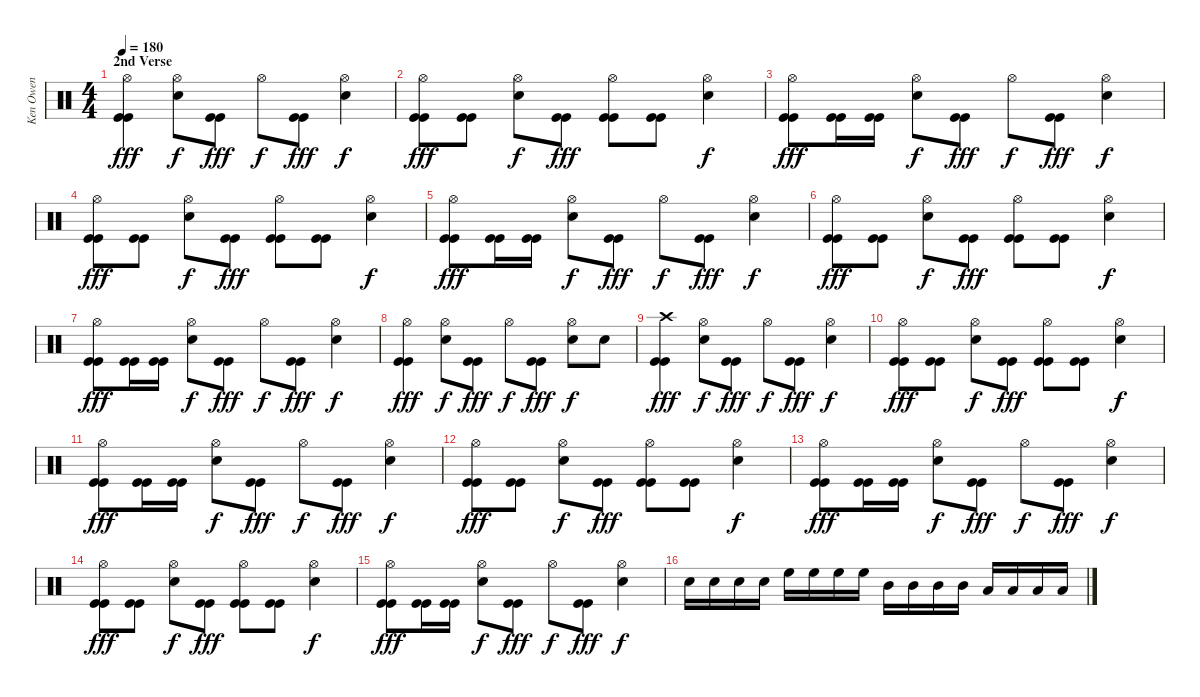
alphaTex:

\track ("Ken Owen" "Ken Owen") {instrument percussion}
\staff {score}
\articulation defaults
\ts (4 4)
\section ("" "2nd Verse")
\tempo 180
\clef neutral
\ks c
("Hi-Hat (open)" "Kick (hit)" "Kick (hit)").4{dy fff} ("Hi-Hat (open)" "Snare (hit) 2").8{dy f} ("Kick (hit)" "Kick (hit)").8{dy fff} "Hi-Hat (open)".8{dy f} ("Kick (hit)" "Kick (hit)").8{dy fff} ("Hi-Hat (open)" "Snare (hit) 2").4{dy f} |
("Hi-Hat (open)" "Kick (hit)" "Kick (hit)").8{dy fff} ("Kick (hit)" "Kick (hit)").8 ("Hi-Hat (open)" "Snare (hit) 2").8{dy f} ("Kick (hit)" "Kick (hit)").8{dy fff} ("Hi-Hat (open)" "Kick (hit)" "Kick (hit)").8 ("Kick (hit)" "Kick (hit)").8 ("Hi-Hat (open)" "Snare (hit) 2").4{dy f} |
("Hi-Hat (open)" "Kick (hit)" "Kick (hit)").8{dy fff} ("Kick (hit)" "Kick (hit)").16 ("Kick (hit)" "Kick (hit)").16 ("Hi-Hat (open)" "Snare (hit) 2").8{dy f} ("Kick (hit)" "Kick (hit)").8{dy fff} "Hi-Hat (open)".8{dy f} ("Kick (hit)" "Kick (hit)").8{dy fff} ("Hi-Hat (open)" "Snare (hit) 2").4{dy f} |
("Hi-Hat (open)" "Kick (hit)" "Kick (hit)").8{dy fff} ("Kick (hit)" "Kick (hit)").8 ("Hi-Hat (open)" "Snare (hit) 2").8{dy f} ("Kick (hit)" "Kick (hit)").8{dy fff} ("Hi-Hat (open)" "Kick (hit)" "Kick (hit)").8 ("Kick (hit)" "Kick (hit)").8 ("Hi-Hat (open)" "Snare (hit) 2").4{dy f} |
("Hi-Hat (open)" "Kick (hit)" "Kick (hit)").8{dy fff} ("Kick (hit)" "Kick (hit)").16 ("Kick (hit)" "Kick (hit)").16 ("Hi-Hat (open)" "Snare (hit) 2").8{dy f} ("Kick (hit)" "Kick (hit)").8{dy fff} "Hi-Hat (open)".8{dy f} ("Kick (hit)" "Kick (hit)").8{dy fff} ("Hi-Hat (open)" "Snare (hit) 2").4{dy f} |
("Hi-Hat (open)" "Kick (hit)" "Kick (hit)").8{dy fff} ("Kick (hit)" "Kick (hit)").8 ("Hi-Hat (open)" "Snare (hit) 2").8{dy f} ("Kick (hit)" "Kick (hit)").8{dy fff} ("Hi-Hat (open)" "Kick (hit)" "Kick (hit)").8 ("Kick (hit)" "Kick (hit)").8 ("Hi-Hat (open)" "Snare (hit) 2").4{dy f} |
("Hi-Hat (open)" "Kick (hit)" "Kick (hit)").8{dy fff} ("Kick (hit)" "Kick (hit)").16 ("Kick (hit)" "Kick (hit)").16 ("Hi-Hat (open)" "Snare (hit) 2").8{dy f} ("Kick (hit)" "Kick (hit)").8{dy fff} "Hi-Hat (open)".8{dy f} ("Kick (hit)" "Kick (hit)").8{dy fff} ("Hi-Hat (open)" "Snare (hit) 2").4{dy f} |
("Hi-Hat (open)" "Kick (hit)" "Kick (hit)").4{dy fff} ("Hi-Hat (open)" "Snare (hit) 2").8{dy f} ("Kick (hit)" "Kick (hit)").8{dy fff} "Hi-Hat (open)".8{dy f} ("Kick (hit)" "Kick (hit)").8{dy fff} ("Hi-Hat (open)" "Snare (hit) 2").8{dy f} "Snare (hit) 2".8 |
("Crash high (hit)" "Kick (hit)" "Kick (hit)").4{dy fff} ("Hi-Hat (open)" "Snare (hit) 2").8{dy f} ("Kick (hit)" "Kick (hit)").8{dy fff} "Hi-Hat (open)".8{dy f} ("Kick (hit)" "Kick (hit)").8{dy fff} ("Hi-Hat (open)" "Snare (hit) 2").4{dy f} |
("Hi-Hat (open)" "Kick (hit)" "Kick (hit)").8{dy fff} ("Kick (hit)" "Kick (hit)").8 ("Hi-Hat (open)" "Snare (hit) 2").8{dy f} ("Kick (hit)" "Kick (hit)").8{dy fff} ("Hi-Hat (open)" "Kick (hit)" "Kick (hit)").8 ("Kick (hit)" "Kick (hit)").8 ("Hi-Hat (open)" "Snare (hit) 2").4{dy f} |
("Hi-Hat (open)" "Kick (hit)" "Kick (hit)").8{dy fff} ("Kick (hit)" "Kick (hit)").16 ("Kick (hit)" "Kick (hit)").16 ("Hi-Hat (open)" "Snare (hit) 2").8{dy f} ("Kick (hit)" "Kick (hit)").8{dy fff} "Hi-Hat (open)".8{dy f} ("Kick (hit)" "Kick (hit)").8{dy fff} ("Hi-Hat (open)" "Snare (hit) 2").4{dy f} |
("Hi-Hat (open)" "Kick (hit)" "Kick (hit)").8{dy fff} ("Kick (hit)" "Kick (hit)").8 ("Hi-Hat (open)" "Snare (hit) 2").8{dy f} ("Kick (hit)" "Kick (hit)").8{dy fff} ("Hi-Hat (open)" "Kick (hit)" "Kick (hit)").8 ("Kick (hit)" "Kick (hit)").8 ("Hi-Hat (open)" "Snare (hit) 2").4{dy f} |
("Hi-Hat (open)" "Kick (hit)" "Kick (hit)").8{dy fff} ("Kick (hit)" "Kick (hit)").16 ("Kick (hit)" "Kick (hit)").16 ("Hi-Hat (open)" "Snare (hit) 2").8{dy f} ("Kick (hit)" "Kick (hit)").8{dy fff} "Hi-Hat (open)".8{dy f} ("Kick (hit)" "Kick (hit)").8{dy fff} ("Hi-Hat (open)" "Snare (hit) 2").4{dy f} |
("Hi-Hat (open)" "Kick (hit)" "Kick (hit)").8{dy fff} ("Kick (hit)" "Kick (hit)").8 ("Hi-Hat (open)" "Snare (hit) 2").8{dy f} ("Kick (hit)" "Kick (hit)").8{dy fff} ("Hi-Hat (open)" "Kick (hit)" "Kick (hit)").8 ("Kick (hit)" "Kick (hit)").8 ("Hi-Hat (open)" "Snare (hit) 2").4{dy f} |
("Hi-Hat (open)" "Kick (hit)" "Kick (hit)").8{dy fff} ("Kick (hit)" "Kick (hit)").16 ("Kick (hit)" "Kick (hit)").16 ("Hi-Hat (open)" "Snare (hit) 2").8{dy f} ("Kick (hit)" "Kick (hit)").8{dy fff} "Hi-Hat (open)".8{dy f} ("Kick (hit)" "Kick (hit)").8{dy fff} ("Hi-Hat (open)" "Snare (hit) 2").4{dy f} |
"Snare (hit) 2".16 "Snare (hit) 2".16 "Snare (hit) 2".16 "Snare (hit) 2".16 "High Floor Tom (hit)".16 "High Floor Tom (hit)".16 "High Floor Tom (hit)".16 "High Floor Tom (hit)".16 "Mid Tom (hit)".16 "Mid Tom (hit)".16 "Mid Tom (hit)".16 "Mid Tom (hit)".16 "Low Tom (hit)".16 "Low Tom (hit)".16 "Low Tom (hit)".16 "Low Tom (hit)".16
